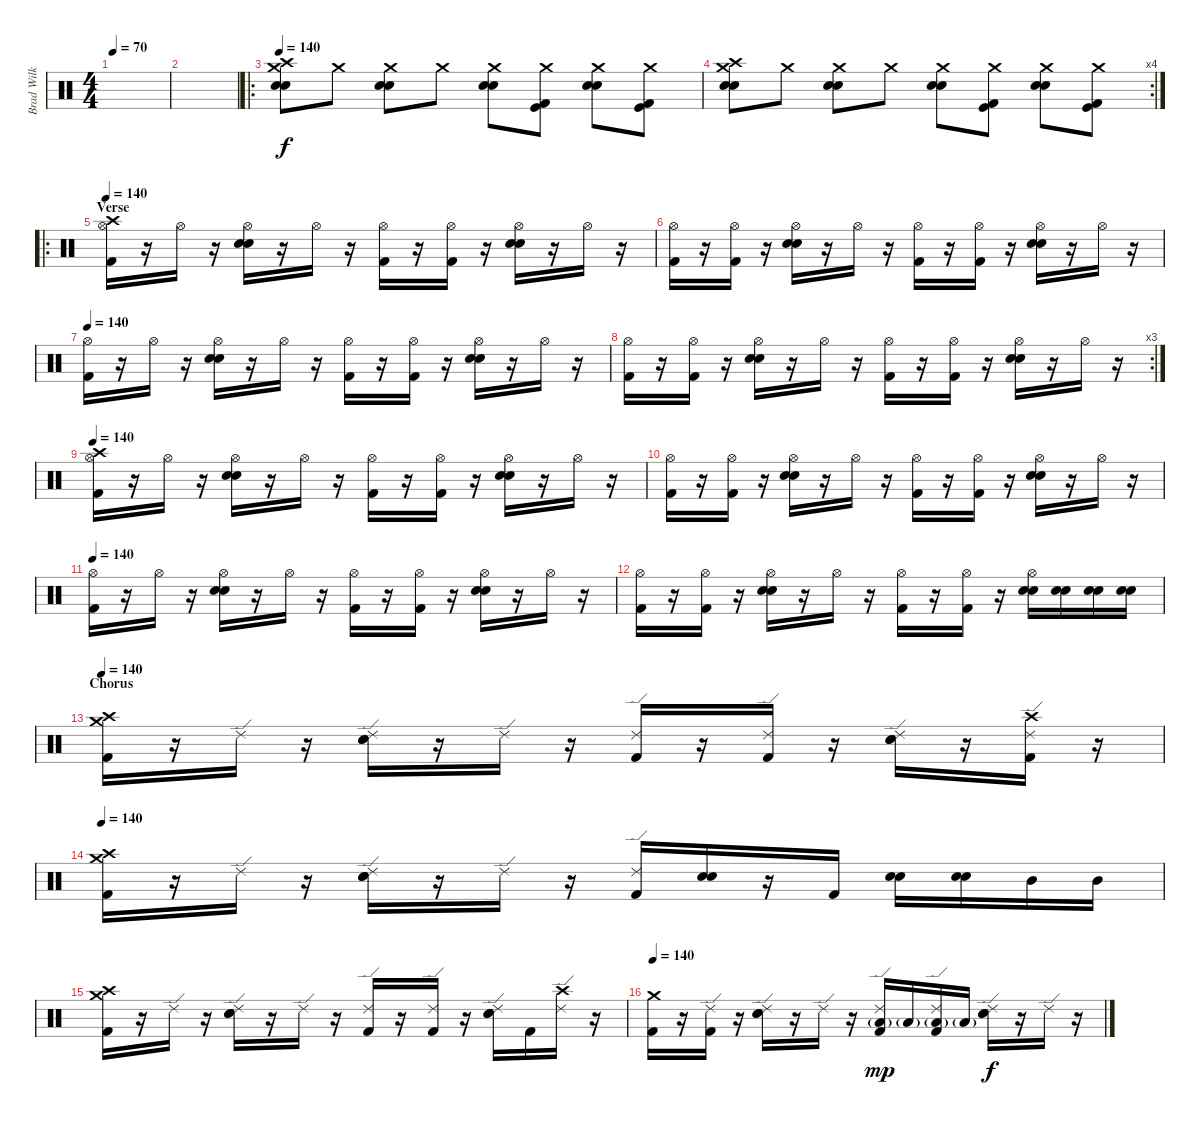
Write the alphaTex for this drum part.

\track ("Brad Wilk" "Brad Wilk") {instrument percussion}
\staff {score}
\articulation defaults
\ts (4 4)
\tempo 70
\clef neutral
\ks c
|
|
\ro
\tempo 140
("Crash medium (hit)" "Crash high (hit)" "Snare (hit) 2" "Electric Snare (hit)").8 "Crash medium (hit)".8 ("Crash medium (hit)" "Electric Snare (hit)" "Snare (hit) 2").8 "Crash medium (hit)".8 ("Crash medium (hit)" "Electric Snare (hit)" "Snare (hit) 2").8 ("Crash medium (hit)" "Kick (hit)" "Kick (hit) 2").8 ("Crash medium (hit)" "Electric Snare (hit)" "Snare (hit) 2").8 ("Crash medium (hit)" "Kick (hit)" "Kick (hit) 2").8 |
\rc 4
("Crash medium (hit)" "Crash high (hit)" "Snare (hit) 2" "Electric Snare (hit)").8 "Crash medium (hit)".8 ("Crash medium (hit)" "Electric Snare (hit)" "Snare (hit) 2").8 "Crash medium (hit)".8 ("Crash medium (hit)" "Electric Snare (hit)" "Snare (hit) 2").8 ("Crash medium (hit)" "Kick (hit)" "Kick (hit) 2").8 ("Crash medium (hit)" "Electric Snare (hit)" "Snare (hit) 2").8 ("Crash medium (hit)" "Kick (hit)" "Kick (hit) 2").8 |
\ro
\section ("" "Verse")
\tempo 140
("Hi-Hat (open)" "Crash high (hit)" "Kick (hit) 2").16 r.16 "Hi-Hat (open)".16 r.16 ("Hi-Hat (open)" "Electric Snare (hit)" "Snare (hit) 2").16 r.16 "Hi-Hat (open)".16 r.16 ("Hi-Hat (open)" "Kick (hit) 2").16 r.16 ("Hi-Hat (open)" "Kick (hit) 2").16 r.16 ("Hi-Hat (open)" "Electric Snare (hit)" "Snare (hit) 2").16 r.16 "Hi-Hat (open)".16 r.16 |
("Hi-Hat (open)" "Kick (hit) 2").16 r.16 ("Hi-Hat (open)" "Kick (hit) 2").16 r.16 ("Hi-Hat (open)" "Electric Snare (hit)" "Snare (hit) 2").16 r.16 "Hi-Hat (open)".16 r.16 ("Hi-Hat (open)" "Kick (hit) 2").16 r.16 ("Hi-Hat (open)" "Kick (hit) 2").16 r.16 ("Hi-Hat (open)" "Electric Snare (hit)" "Snare (hit) 2").16 r.16 "Hi-Hat (open)".16 r.16 |
\tempo 140
("Hi-Hat (open)" "Kick (hit) 2").16 r.16 "Hi-Hat (open)".16 r.16 ("Hi-Hat (open)" "Electric Snare (hit)" "Snare (hit) 2").16 r.16 "Hi-Hat (open)".16 r.16 ("Hi-Hat (open)" "Kick (hit) 2").16 r.16 ("Hi-Hat (open)" "Kick (hit) 2").16 r.16 ("Hi-Hat (open)" "Electric Snare (hit)" "Snare (hit) 2").16 r.16 "Hi-Hat (open)".16 r.16 |
\rc 3
("Hi-Hat (open)" "Kick (hit) 2").16 r.16 ("Hi-Hat (open)" "Kick (hit) 2").16 r.16 ("Hi-Hat (open)" "Electric Snare (hit)" "Snare (hit) 2").16 r.16 "Hi-Hat (open)".16 r.16 ("Hi-Hat (open)" "Kick (hit) 2").16 r.16 ("Hi-Hat (open)" "Kick (hit) 2").16 r.16 ("Hi-Hat (open)" "Electric Snare (hit)" "Snare (hit) 2").16 r.16 "Hi-Hat (open)".16 r.16 |
\tempo 140
("Hi-Hat (open)" "Crash high (hit)" "Kick (hit) 2").16 r.16 "Hi-Hat (open)".16 r.16 ("Hi-Hat (open)" "Electric Snare (hit)" "Snare (hit) 2").16 r.16 "Hi-Hat (open)".16 r.16 ("Hi-Hat (open)" "Kick (hit) 2").16 r.16 ("Hi-Hat (open)" "Kick (hit) 2").16 r.16 ("Hi-Hat (open)" "Electric Snare (hit)" "Snare (hit) 2").16 r.16 "Hi-Hat (open)".16 r.16 |
("Hi-Hat (open)" "Kick (hit) 2").16 r.16 ("Hi-Hat (open)" "Kick (hit) 2").16 r.16 ("Hi-Hat (open)" "Electric Snare (hit)" "Snare (hit) 2").16 r.16 "Hi-Hat (open)".16 r.16 ("Hi-Hat (open)" "Kick (hit) 2").16 r.16 ("Hi-Hat (open)" "Kick (hit) 2").16 r.16 ("Hi-Hat (open)" "Electric Snare (hit)" "Snare (hit) 2").16 r.16 "Hi-Hat (open)".16 r.16 |
\tempo 140
("Hi-Hat (open)" "Kick (hit) 2").16 r.16 "Hi-Hat (open)".16 r.16 ("Hi-Hat (open)" "Electric Snare (hit)" "Snare (hit) 2").16 r.16 "Hi-Hat (open)".16 r.16 ("Hi-Hat (open)" "Kick (hit) 2").16 r.16 ("Hi-Hat (open)" "Kick (hit) 2").16 r.16 ("Hi-Hat (open)" "Electric Snare (hit)" "Snare (hit) 2").16 r.16 "Hi-Hat (open)".16 r.16 |
("Hi-Hat (open)" "Kick (hit) 2").16 r.16 ("Hi-Hat (open)" "Kick (hit) 2").16 r.16 ("Hi-Hat (open)" "Electric Snare (hit)" "Snare (hit) 2").16 r.16 "Hi-Hat (open)".16 r.16 ("Hi-Hat (open)" "Kick (hit) 2").16 r.16 ("Hi-Hat (open)" "Kick (hit) 2").16 r.16 ("Hi-Hat (open)" "Electric Snare (hit)" "Snare (hit) 2").16 ("Electric Snare (hit)" "Snare (hit) 2").16 ("Electric Snare (hit)" "Snare (hit) 2").16 ("Electric Snare (hit)" "Snare (hit) 2").16 |
\section ("" "Chorus")
\tempo 140
("Crash medium (hit)" "Crash high (hit)" "Kick (hit) 2").16 r.16 "Ride (edge) 2".16 r.16 ("Ride (edge) 2" "Electric Snare (hit)" "Snare (hit) 2").16 r.16 "Ride (edge) 2".16 r.16 ("Ride (edge) 2" "Kick (hit) 2").16 r.16 ("Ride (edge) 2" "Kick (hit) 2").16 r.16 ("Ride (edge) 2" "Electric Snare (hit)" "Snare (hit) 2").16 r.16 ("Ride (edge) 2" "Crash high (hit)" "Kick (hit) 2").16 r.16 |
\tempo 140
("Crash medium (hit)" "Crash high (hit)" "Kick (hit) 2").16 r.16 "Ride (edge) 2".16 r.16 ("Ride (edge) 2" "Electric Snare (hit)" "Snare (hit) 2").16 r.16 "Ride (edge) 2".16 r.16 ("Ride (edge) 2" "Kick (hit) 2").16 ("Electric Snare (hit)" "Snare (hit) 2").16 r.16 "Kick (hit) 2".16 ("Electric Snare (hit)" "Snare (hit) 2").16 ("Electric Snare (hit)" "Electric Snare (hit)").16 "Mid Tom (hit)".16 "Mid Tom (hit)".16 |
("Crash medium (hit)" "Crash high (hit)" "Kick (hit) 2").16 r.16 "Ride (edge) 2".16 r.16 ("Ride (edge) 2" "Electric Snare (hit)" "Snare (hit) 2").16 r.16 "Ride (edge) 2".16 r.16 ("Ride (edge) 2" "Kick (hit) 2").16 r.16 ("Ride (edge) 2" "Kick (hit) 2").16 r.16 ("Ride (edge) 2" "Electric Snare (hit)" "Snare (hit) 2").16 "Kick (hit) 2".16 ("Ride (edge) 2" "Crash high (hit)").16 r.16 |
\tempo 140
("Crash medium (hit)" "Kick (hit) 2").16 r.16 ("Ride (edge) 2" "Kick (hit) 2").16 r.16 ("Ride (edge) 2" "Electric Snare (hit)" "Snare (hit) 2").16 r.16 "Ride (edge) 2".16 r.16 ("Ride (edge) 2" "Low Tom (hit)"{g} "Kick (hit) 2").16{dy mp} "Low Tom (hit)"{g}.16 ("Ride (edge) 2" "Low Tom (hit)"{g} "Kick (hit) 2").16 "Low Tom (hit)"{g}.16 ("Ride (edge) 2" "Electric Snare (hit)" "Snare (hit) 2").16{dy f} r.16 "Ride (edge) 2".16 r.16
